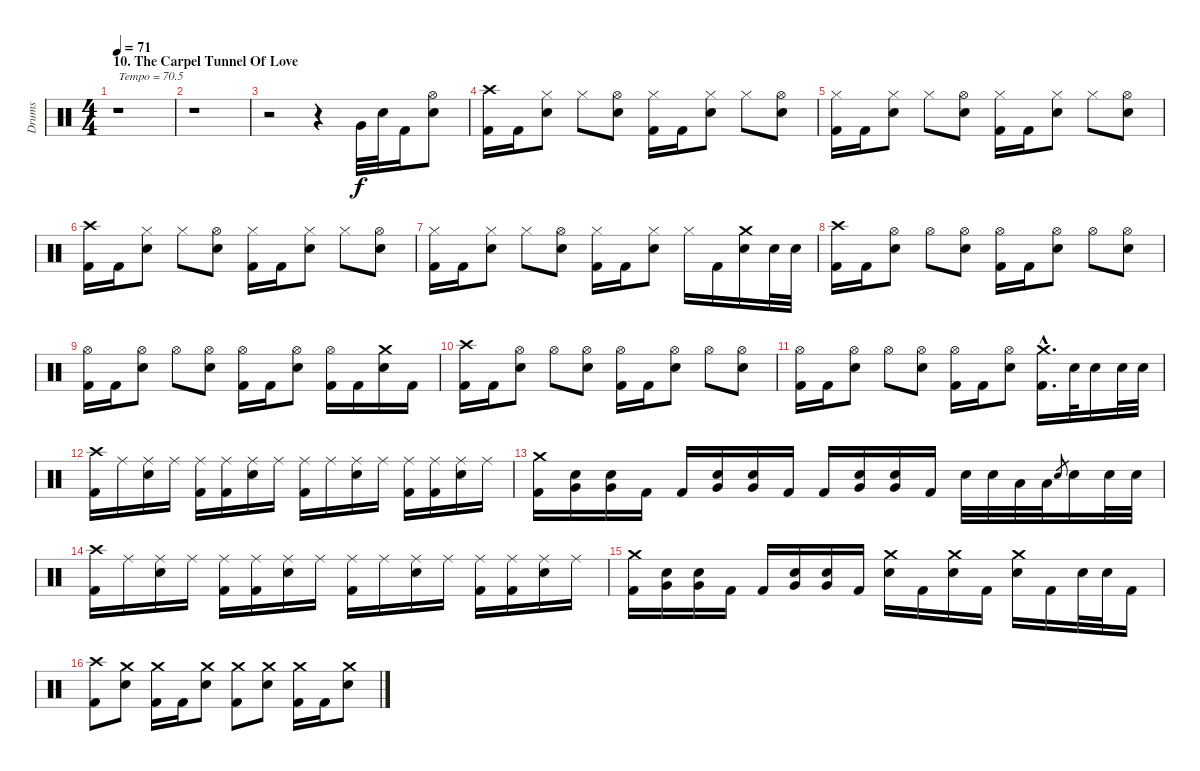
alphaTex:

\track ("Drums" "Drums") {instrument percussion}
\staff {score}
\articulation defaults
\ts (4 4)
\section ("" "10. The Carpel Tunnel Of Love")
\tempo 71
\clef neutral
\ks c
r.1{txt "Tempo = 70.5" dy f volume 16} |
r.1 |
r.2 r.4 "Very Low Tom (hit)".32 "Snare (hit) 2".32 "Kick (hit) 2".16 ("Hi-Hat (open)" "Snare (hit) 2").8 |
("Crash high (hit)" "Kick (hit) 2").16 "Kick (hit) 2".16 ("Hi-Hat (closed)" "Snare (hit) 2").8 "Hi-Hat (closed)".8 ("Hi-Hat (open)" "Snare (hit) 2").8 ("Hi-Hat (closed)" "Kick (hit) 2").16 "Kick (hit) 2".16 ("Hi-Hat (closed)" "Snare (hit) 2").8 "Hi-Hat (closed)".8 ("Hi-Hat (open)" "Snare (hit) 2").8 |
("Hi-Hat (closed)" "Kick (hit) 2").16 "Kick (hit) 2".16 ("Hi-Hat (closed)" "Snare (hit) 2").8 "Hi-Hat (closed)".8 ("Hi-Hat (open)" "Snare (hit) 2").8 ("Hi-Hat (closed)" "Kick (hit) 2").16 "Kick (hit) 2".16 ("Hi-Hat (closed)" "Snare (hit) 2").8 "Hi-Hat (closed)".8 ("Hi-Hat (open)" "Snare (hit) 2").8 |
("Crash high (hit)" "Kick (hit) 2").16 "Kick (hit) 2".16 ("Hi-Hat (closed)" "Snare (hit) 2").8 "Hi-Hat (closed)".8 ("Hi-Hat (open)" "Snare (hit) 2").8 ("Hi-Hat (closed)" "Kick (hit) 2").16 "Kick (hit) 2".16 ("Hi-Hat (closed)" "Snare (hit) 2").8 "Hi-Hat (closed)".8 ("Hi-Hat (open)" "Snare (hit) 2").8 |
("Hi-Hat (closed)" "Kick (hit) 2").16 "Kick (hit) 2".16 ("Hi-Hat (closed)" "Snare (hit) 2").8 "Hi-Hat (closed)".8 ("Hi-Hat (open)" "Snare (hit) 2").8 ("Hi-Hat (closed)" "Kick (hit) 2").16 "Kick (hit) 2".16 ("Hi-Hat (closed)" "Snare (hit) 2").8 "Hi-Hat (closed)".16 "Kick (hit) 2".16 ("Crash medium (hit)" "Snare (hit) 2").16 "Snare (hit) 2".32 "Snare (hit) 2".32 |
("Crash high (hit)" "Kick (hit) 2").16 "Kick (hit) 2".16 ("Hi-Hat (open)" "Snare (hit) 2").8 "Hi-Hat (open)".8 ("Hi-Hat (open)" "Snare (hit) 2").8 ("Hi-Hat (open)" "Kick (hit) 2").16 "Kick (hit) 2".16 ("Hi-Hat (open)" "Snare (hit) 2").8 "Hi-Hat (open)".8 ("Hi-Hat (open)" "Snare (hit) 2").8 |
("Hi-Hat (open)" "Kick (hit) 2").16 "Kick (hit) 2".16 ("Hi-Hat (open)" "Snare (hit) 2").8 "Hi-Hat (open)".8 ("Hi-Hat (open)" "Snare (hit) 2").8 ("Hi-Hat (open)" "Kick (hit) 2").16 "Kick (hit) 2".16 ("Hi-Hat (open)" "Snare (hit) 2").8 ("Hi-Hat (open)" "Kick (hit) 2").16 "Kick (hit) 2".16 ("Crash medium (hit)" "Snare (hit) 2").16 "Kick (hit) 2".16 |
("Crash high (hit)" "Kick (hit) 2").16 "Kick (hit) 2".16 ("Hi-Hat (open)" "Snare (hit) 2").8 "Hi-Hat (open)".8 ("Hi-Hat (open)" "Snare (hit) 2").8 ("Hi-Hat (open)" "Kick (hit) 2").16 "Kick (hit) 2".16 ("Hi-Hat (open)" "Snare (hit) 2").8 "Hi-Hat (open)".8 ("Hi-Hat (open)" "Snare (hit) 2").8 |
("Hi-Hat (open)" "Kick (hit) 2").16 "Kick (hit) 2".16 ("Hi-Hat (open)" "Snare (hit) 2").8 "Hi-Hat (open)".8 ("Hi-Hat (open)" "Snare (hit) 2").8 ("Hi-Hat (open)" "Kick (hit) 2").16 "Kick (hit) 2".16 ("Hi-Hat (open)" "Snare (hit) 2").8 ("Crash medium (hit)"{hac} "Kick (hit) 2"{hac}).16{d} "Snare (hit) 2".32 "Snare (hit) 2".16 "Snare (hit) 2".32 "Snare (hit) 2".32 |
("Crash high (hit)" "Kick (hit) 2").16 "Ride (middle)".16 ("Ride (middle)" "Snare (hit) 2").16 "Ride (middle)".16 ("Ride (middle)" "Kick (hit) 2").16 ("Ride (middle)" "Kick (hit) 2").16 ("Ride (middle)" "Snare (hit) 2").16 "Ride (middle)".16 ("Ride (middle)" "Kick (hit) 2").16 "Ride (middle)".16 ("Ride (middle)" "Snare (hit) 2").16 "Ride (middle)".16 ("Ride (middle)" "Kick (hit) 2").16 ("Ride (middle)" "Kick (hit) 2").16 ("Ride (middle)" "Snare (hit) 2").16 "Ride (middle)".16 |
("Crash medium (hit)" "Kick (hit) 2").16 ("Snare (hit) 2" "Very Low Tom (hit)").16 ("Snare (hit) 2" "Very Low Tom (hit)").16 "Kick (hit) 2".16 "Kick (hit) 2".16 ("Snare (hit) 2" "Very Low Tom (hit)").16 ("Snare (hit) 2" "Very Low Tom (hit)").16 "Kick (hit) 2".16 "Kick (hit) 2".16 ("Snare (hit) 2" "Very Low Tom (hit)").16 ("Snare (hit) 2" "Very Low Tom (hit)").16 "Kick (hit) 2".16 "Snare (hit) 2".32 "Snare (hit) 2".32 "Low Tom (hit)".32 "Low Tom (hit)".32 "Snare (hit) 2".8{gr} "Snare (hit) 2".16 "Snare (hit) 2".32 "Snare (hit) 2".32 |
("Crash high (hit)" "Kick (hit) 2").16 "Ride (middle)".16 ("Ride (middle)" "Snare (hit) 2").16 "Ride (middle)".16 ("Ride (middle)" "Kick (hit) 2").16 ("Ride (middle)" "Kick (hit) 2").16 ("Ride (middle)" "Snare (hit) 2").16 "Ride (middle)".16 ("Ride (middle)" "Kick (hit) 2").16 "Ride (middle)".16 ("Ride (middle)" "Snare (hit) 2").16 "Ride (middle)".16 ("Ride (middle)" "Kick (hit) 2").16 ("Ride (middle)" "Kick (hit) 2").16 ("Ride (middle)" "Snare (hit) 2").16 "Ride (middle)".16 |
("Crash medium (hit)" "Kick (hit) 2").16 ("Snare (hit) 2" "Very Low Tom (hit)").16 ("Snare (hit) 2" "Very Low Tom (hit)").16 "Kick (hit) 2".16 "Kick (hit) 2".16 ("Snare (hit) 2" "Very Low Tom (hit)").16 ("Snare (hit) 2" "Very Low Tom (hit)").16 "Kick (hit) 2".16 ("Crash medium (hit)" "Snare (hit) 2").16 "Kick (hit) 2".16 ("Crash medium (hit)" "Snare (hit) 2").16 "Kick (hit) 2".16 ("Crash medium (hit)" "Snare (hit) 2").16 "Kick (hit) 2".16 "Snare (hit) 2".32 "Snare (hit) 2".32 "Kick (hit) 2".16 |
("Crash high (hit)" "Kick (hit) 2").8 ("Crash medium (hit)" "Snare (hit) 2").8 ("Crash medium (hit)" "Kick (hit) 2").16 "Kick (hit) 2".16 ("Crash medium (hit)" "Snare (hit) 2").8 ("Crash medium (hit)" "Kick (hit) 2").8 ("Crash medium (hit)" "Snare (hit) 2").8 ("Crash medium (hit)" "Kick (hit) 2").16 "Kick (hit) 2".16 ("Crash medium (hit)" "Snare (hit) 2").8
